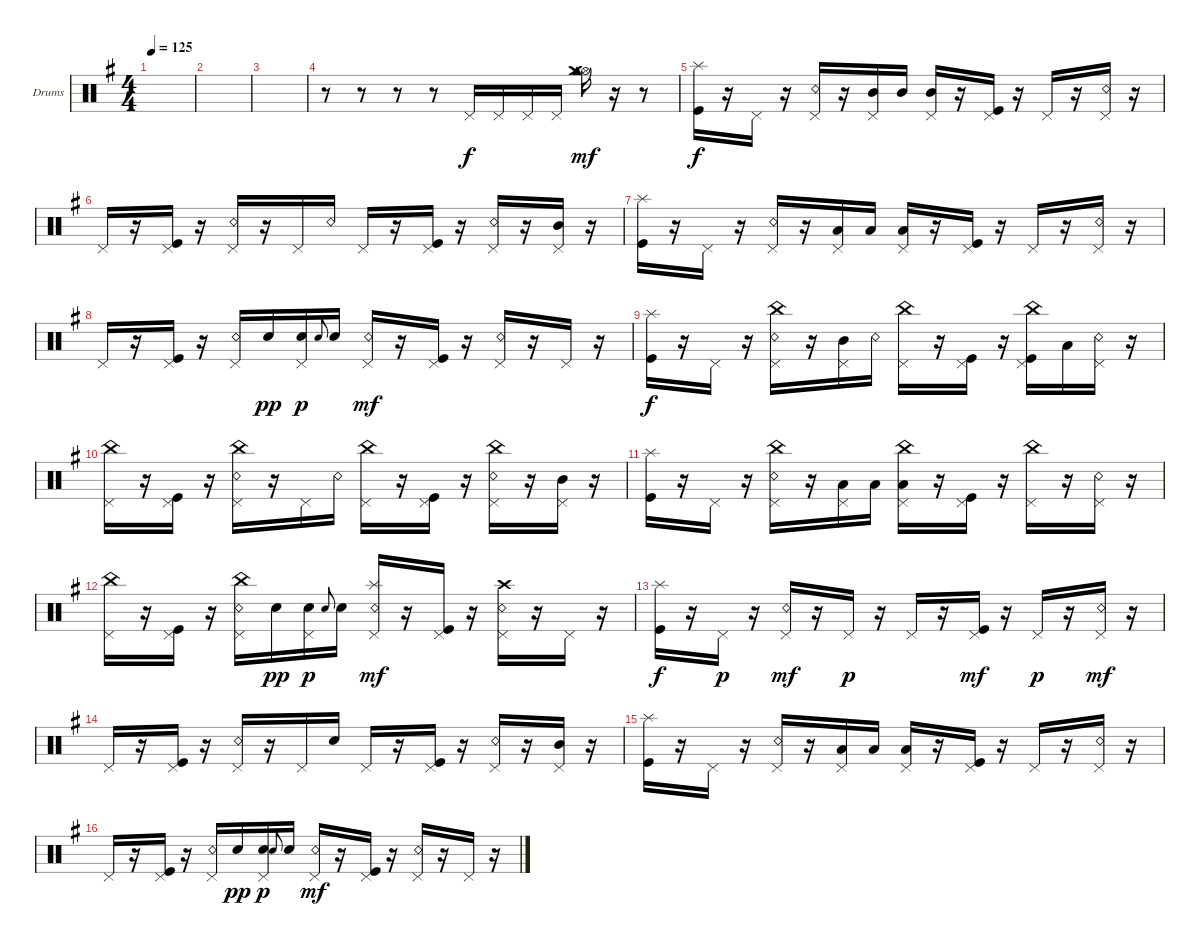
\bracketExtendMode groupsimilarinstruments
\firstSystemTrackNameOrientation horizontal
\otherSystemsTrackNameOrientation horizontal
\track ("Drumkit" "Drums") {instrument percussion}
\staff {score}
\articulation defaults
\ts (4 4)
\tempo 125
\clef neutral
\ks g
|
|
|
r.8 r.8 r.8 r.8 "Pedal Hi-Hat (hit)".16 "Pedal Hi-Hat (hit)".16 "Pedal Hi-Hat (hit)".16 "Pedal Hi-Hat (hit)".16 ("Hi-Hat (open)" "Crash medium (hit)" "Cowbell high (hit)").16{dy mf} r.16 r.8 |
("Kick (hit)" "Splash (hit)").16{dy f} r.16 "Pedal Hi-Hat (hit)".16 r.16 ("Pedal Hi-Hat (hit)" "Snare (rim shot)").16 r.16 ("Pedal Hi-Hat (hit)" "Mid Tom (hit)").16 "Mid Tom (hit)".16 ("Pedal Hi-Hat (hit)" "Mid Tom (hit)").16 r.16 ("Pedal Hi-Hat (hit)" "Kick (hit)").16 r.16 "Pedal Hi-Hat (hit)".16 r.16 ("Pedal Hi-Hat (hit)" "Snare (rim shot)").16 r.16 |
"Pedal Hi-Hat (hit)".16 r.16 ("Pedal Hi-Hat (hit)" "Kick (hit)").16 r.16 ("Pedal Hi-Hat (hit)" "Snare (rim shot)").16 r.16 "Pedal Hi-Hat (hit)".16 "Snare (rim shot)".16 "Pedal Hi-Hat (hit)".16 r.16 ("Pedal Hi-Hat (hit)" "Kick (hit)").16 r.16 ("Pedal Hi-Hat (hit)" "Snare (rim shot)").16 r.16 ("Pedal Hi-Hat (hit)" "Mid Tom (hit)").16 r.16 |
("Kick (hit)" "Splash (hit)").16 r.16 "Pedal Hi-Hat (hit)".16 r.16 ("Pedal Hi-Hat (hit)" "Snare (rim shot)").16 r.16 ("Pedal Hi-Hat (hit)" "Low Tom (hit)").16 "Low Tom (hit)".16 ("Pedal Hi-Hat (hit)" "Low Tom (hit)").16 r.16 ("Pedal Hi-Hat (hit)" "Kick (hit)").16 r.16 "Pedal Hi-Hat (hit)".16 r.16 ("Pedal Hi-Hat (hit)" "Snare (rim shot)").16 r.16 |
"Pedal Hi-Hat (hit)".16 r.16 ("Pedal Hi-Hat (hit)" "Kick (hit)").16 r.16 ("Pedal Hi-Hat (hit)" "Snare (rim shot)").16 "Snare (hit) 2".16{dy pp} ("Pedal Hi-Hat (hit)" "Snare (hit) 2").16{dy p} "Snare (hit) 2".8{gr onbeat} "Snare (hit) 2".16 ("Pedal Hi-Hat (hit)" "Snare (rim shot)").16{dy mf} r.16 ("Pedal Hi-Hat (hit)" "Kick (hit)").16 r.16 ("Pedal Hi-Hat (hit)" "Snare (rim shot)").16 r.16 "Pedal Hi-Hat (hit)".16 r.16 |
("Kick (hit)" "Splash (hit)").16{dy f} r.16 "Pedal Hi-Hat (hit)".16 r.16 ("Pedal Hi-Hat (hit)" "Snare (rim shot)" "China (hit)").16 r.16 ("Pedal Hi-Hat (hit)" "Mid Tom (hit)").16 "Snare (rim shot)".16 ("Pedal Hi-Hat (hit)" "China (hit)").16 r.16 ("Pedal Hi-Hat (hit)" "Kick (hit)").16 r.16 ("Pedal Hi-Hat (hit)" "Kick (hit)" "China (hit)").16 "Low Tom (hit)".16 ("Pedal Hi-Hat (hit)" "Snare (rim shot)").16 r.16 |
("Pedal Hi-Hat (hit)" "China (hit)").16 r.16 ("Pedal Hi-Hat (hit)" "Kick (hit)").16 r.16 ("Pedal Hi-Hat (hit)" "Snare (rim shot)" "China (hit)").16 r.16 "Pedal Hi-Hat (hit)".16 "Snare (rim shot)".16 ("Pedal Hi-Hat (hit)" "China (hit)").16 r.16 ("Pedal Hi-Hat (hit)" "Kick (hit)").16 r.16 ("Pedal Hi-Hat (hit)" "Snare (rim shot)" "China (hit)").16 r.16 ("Pedal Hi-Hat (hit)" "Mid Tom (hit)").16 r.16 |
("Kick (hit)" "Splash (hit)").16 r.16 "Pedal Hi-Hat (hit)".16 r.16 ("Pedal Hi-Hat (hit)" "Snare (rim shot)" "China (hit)").16 r.16 ("Pedal Hi-Hat (hit)" "Low Tom (hit)").16 "Low Tom (hit)".16 ("Pedal Hi-Hat (hit)" "Low Tom (hit)" "China (hit)").16 r.16 ("Pedal Hi-Hat (hit)" "Kick (hit)").16 r.16 ("Pedal Hi-Hat (hit)" "China (hit)").16 r.16 ("Pedal Hi-Hat (hit)" "Snare (rim shot)").16 r.16 |
("Pedal Hi-Hat (hit)" "China (hit)").16 r.16 ("Pedal Hi-Hat (hit)" "Kick (hit)").16 r.16 ("Pedal Hi-Hat (hit)" "Snare (rim shot)" "China (hit)").16 "Snare (hit) 2".16{dy pp} ("Pedal Hi-Hat (hit)" "Snare (hit) 2").16{dy p} "Snare (hit) 2".8{gr onbeat} "Snare (hit) 2".16 ("Pedal Hi-Hat (hit)" "Snare (rim shot)" "Splash (hit)").16{dy mf} r.16 ("Pedal Hi-Hat (hit)" "Kick (hit)").16 r.16 ("Pedal Hi-Hat (hit)" "Snare (rim shot)" "Crash high (hit)").16 r.16 "Pedal Hi-Hat (hit)".16 r.16 |
("Kick (hit)" "Splash (hit)").16{dy f} r.16 "Pedal Hi-Hat (hit)".16{dy p} r.16 ("Pedal Hi-Hat (hit)" "Snare (rim shot)").16{dy mf} r.16 "Pedal Hi-Hat (hit)".16{dy p} r.16 "Pedal Hi-Hat (hit)".16 r.16 ("Pedal Hi-Hat (hit)" "Kick (hit)").16{dy mf} r.16 "Pedal Hi-Hat (hit)".16{dy p} r.16 ("Pedal Hi-Hat (hit)" "Snare (rim shot)").16{dy mf} r.16 |
"Pedal Hi-Hat (hit)".16 r.16 ("Pedal Hi-Hat (hit)" "Kick (hit)").16 r.16 ("Pedal Hi-Hat (hit)" "Snare (rim shot)").16 r.16 "Pedal Hi-Hat (hit)".16 "Snare (hit) 2".16 "Pedal Hi-Hat (hit)".16 r.16 ("Pedal Hi-Hat (hit)" "Kick (hit)").16 r.16 ("Pedal Hi-Hat (hit)" "Snare (rim shot)").16 r.16 ("Pedal Hi-Hat (hit)" "Mid Tom (hit)").16 r.16 |
("Kick (hit)" "Splash (hit)").16 r.16 "Pedal Hi-Hat (hit)".16 r.16 ("Pedal Hi-Hat (hit)" "Snare (rim shot)").16 r.16 ("Pedal Hi-Hat (hit)" "Low Tom (hit)").16 "Low Tom (hit)".16 ("Pedal Hi-Hat (hit)" "Low Tom (hit)").16 r.16 ("Pedal Hi-Hat (hit)" "Kick (hit)").16 r.16 "Pedal Hi-Hat (hit)".16 r.16 ("Pedal Hi-Hat (hit)" "Snare (rim shot)").16 r.16 |
"Pedal Hi-Hat (hit)".16 r.16 ("Pedal Hi-Hat (hit)" "Kick (hit)").16 r.16 ("Pedal Hi-Hat (hit)" "Snare (rim shot)").16 "Snare (hit) 2".16{dy pp} ("Pedal Hi-Hat (hit)" "Snare (hit) 2").16{dy p} "Snare (hit) 2".8{gr onbeat} "Snare (hit) 2".16 ("Pedal Hi-Hat (hit)" "Snare (rim shot)").16{dy mf} r.16 ("Pedal Hi-Hat (hit)" "Kick (hit)").16 r.16 ("Pedal Hi-Hat (hit)" "Snare (rim shot)").16 r.16 "Pedal Hi-Hat (hit)".16 r.16
